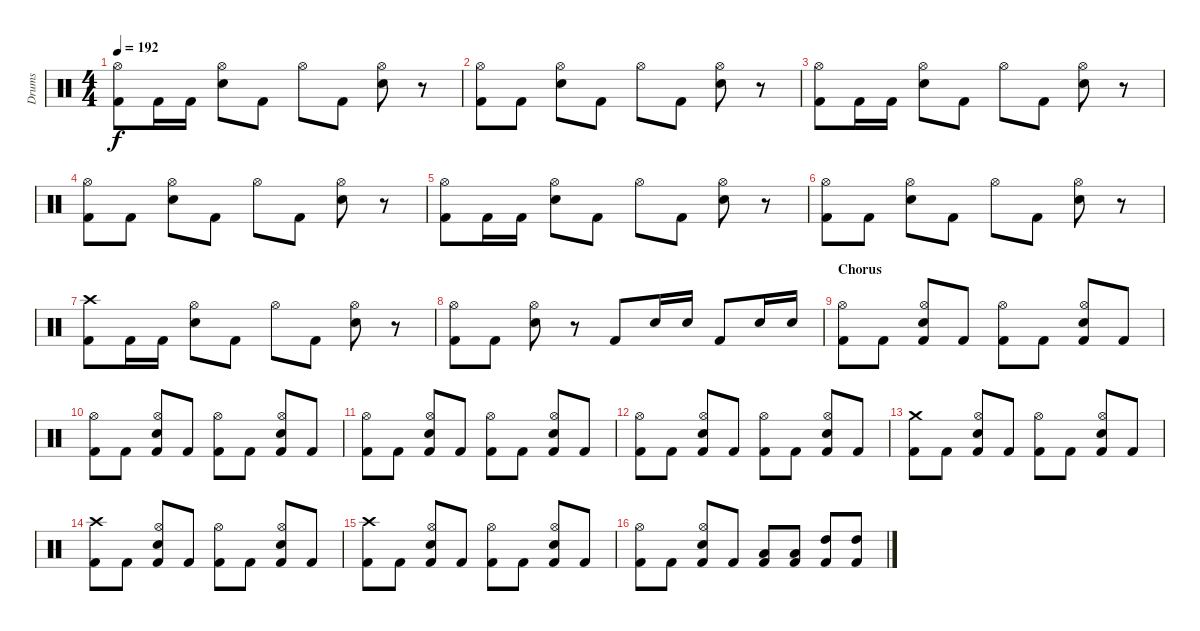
\track ("Drums" "Drums") {instrument percussion}
\staff {score}
\articulation defaults
\ts (4 4)
\tempo 192
\clef neutral
\ks c
("Kick (hit) 2" "Hi-Hat (open)").8{dy f} "Kick (hit) 2".16 "Kick (hit) 2".16 ("Snare (hit) 2" "Hi-Hat (open)").8 "Kick (hit) 2".8 "Hi-Hat (open)".8 "Kick (hit) 2".8 ("Snare (hit) 2" "Hi-Hat (open)").8 r.8 |
("Kick (hit) 2" "Hi-Hat (open)").8 "Kick (hit) 2".8 ("Snare (hit) 2" "Hi-Hat (open)").8 "Kick (hit) 2".8 "Hi-Hat (open)".8 "Kick (hit) 2".8 ("Snare (hit) 2" "Hi-Hat (open)").8 r.8 |
("Kick (hit) 2" "Hi-Hat (open)").8 "Kick (hit) 2".16 "Kick (hit) 2".16 ("Snare (hit) 2" "Hi-Hat (open)").8 "Kick (hit) 2".8 "Hi-Hat (open)".8 "Kick (hit) 2".8 ("Snare (hit) 2" "Hi-Hat (open)").8 r.8 |
("Kick (hit) 2" "Hi-Hat (open)").8 "Kick (hit) 2".8 ("Snare (hit) 2" "Hi-Hat (open)").8 "Kick (hit) 2".8 "Hi-Hat (open)".8 "Kick (hit) 2".8 ("Snare (hit) 2" "Hi-Hat (open)").8 r.8 |
("Kick (hit) 2" "Hi-Hat (open)").8 "Kick (hit) 2".16 "Kick (hit) 2".16 ("Snare (hit) 2" "Hi-Hat (open)").8 "Kick (hit) 2".8 "Hi-Hat (open)".8 "Kick (hit) 2".8 ("Snare (hit) 2" "Hi-Hat (open)").8 r.8 |
("Kick (hit) 2" "Hi-Hat (open)").8 "Kick (hit) 2".8 ("Snare (hit) 2" "Hi-Hat (open)").8 "Kick (hit) 2".8 "Hi-Hat (open)".8 "Kick (hit) 2".8 ("Snare (hit) 2" "Hi-Hat (open)").8 r.8 |
("Kick (hit) 2" "Crash high (hit)").8 "Kick (hit) 2".16 "Kick (hit) 2".16 ("Snare (hit) 2" "Hi-Hat (open)").8 "Kick (hit) 2".8 "Hi-Hat (open)".8 "Kick (hit) 2".8 ("Snare (hit) 2" "Hi-Hat (open)").8 r.8 |
("Kick (hit) 2" "Hi-Hat (open)").8 "Kick (hit) 2".8 ("Snare (hit) 2" "Hi-Hat (open)").8 r.8 "Kick (hit) 2".8 "Snare (hit) 2".16 "Snare (hit) 2".16 "Kick (hit) 2".8 "Snare (hit) 2".16 "Snare (hit) 2".16 |
\section ("" "Chorus")
("Kick (hit) 2" "Hi-Hat (open)").8 "Kick (hit) 2".8 ("Kick (hit) 2" "Snare (hit) 2" "Hi-Hat (open)").8 "Kick (hit) 2".8 ("Kick (hit) 2" "Hi-Hat (open)").8 "Kick (hit) 2".8 ("Kick (hit) 2" "Snare (hit) 2" "Hi-Hat (open)").8 "Kick (hit) 2".8 |
("Kick (hit) 2" "Hi-Hat (open)").8 "Kick (hit) 2".8 ("Kick (hit) 2" "Snare (hit) 2" "Hi-Hat (open)").8 "Kick (hit) 2".8 ("Kick (hit) 2" "Hi-Hat (open)").8 "Kick (hit) 2".8 ("Kick (hit) 2" "Snare (hit) 2" "Hi-Hat (open)").8 "Kick (hit) 2".8 |
("Kick (hit) 2" "Hi-Hat (open)").8 "Kick (hit) 2".8 ("Kick (hit) 2" "Snare (hit) 2" "Hi-Hat (open)").8 "Kick (hit) 2".8 ("Kick (hit) 2" "Hi-Hat (open)").8 "Kick (hit) 2".8 ("Kick (hit) 2" "Snare (hit) 2" "Hi-Hat (open)").8 "Kick (hit) 2".8 |
("Kick (hit) 2" "Hi-Hat (open)").8 "Kick (hit) 2".8 ("Kick (hit) 2" "Snare (hit) 2" "Hi-Hat (open)").8 "Kick (hit) 2".8 ("Kick (hit) 2" "Hi-Hat (open)").8 "Kick (hit) 2".8 ("Kick (hit) 2" "Snare (hit) 2" "Hi-Hat (open)").8 "Kick (hit) 2".8 |
("Kick (hit) 2" "Crash medium (hit)").8 "Kick (hit) 2".8 ("Kick (hit) 2" "Snare (hit) 2" "Hi-Hat (open)").8 "Kick (hit) 2".8 ("Kick (hit) 2" "Hi-Hat (open)").8 "Kick (hit) 2".8 ("Kick (hit) 2" "Snare (hit) 2" "Hi-Hat (open)").8 "Kick (hit) 2".8 |
("Kick (hit) 2" "Crash high (hit)").8 "Kick (hit) 2".8 ("Kick (hit) 2" "Snare (hit) 2" "Hi-Hat (open)").8 "Kick (hit) 2".8 ("Kick (hit) 2" "Hi-Hat (open)").8 "Kick (hit) 2".8 ("Kick (hit) 2" "Snare (hit) 2" "Hi-Hat (open)").8 "Kick (hit) 2".8 |
("Kick (hit) 2" "Crash high (hit)").8 "Kick (hit) 2".8 ("Kick (hit) 2" "Snare (hit) 2" "Hi-Hat (open)").8 "Kick (hit) 2".8 ("Kick (hit) 2" "Hi-Hat (open)").8 "Kick (hit) 2".8 ("Kick (hit) 2" "Snare (hit) 2" "Hi-Hat (open)").8 "Kick (hit) 2".8 |
("Kick (hit) 2" "Hi-Hat (open)").8 "Kick (hit) 2".8 ("Kick (hit) 2" "Snare (hit) 2" "Hi-Hat (open)").8 "Kick (hit) 2".8 ("Kick (hit) 2" "Low Tom (hit)").8 ("Kick (hit) 2" "Low Tom (hit)").8 ("Kick (hit) 2" "High Tom (hit)").8 ("Kick (hit) 2" "High Tom (hit)").8
